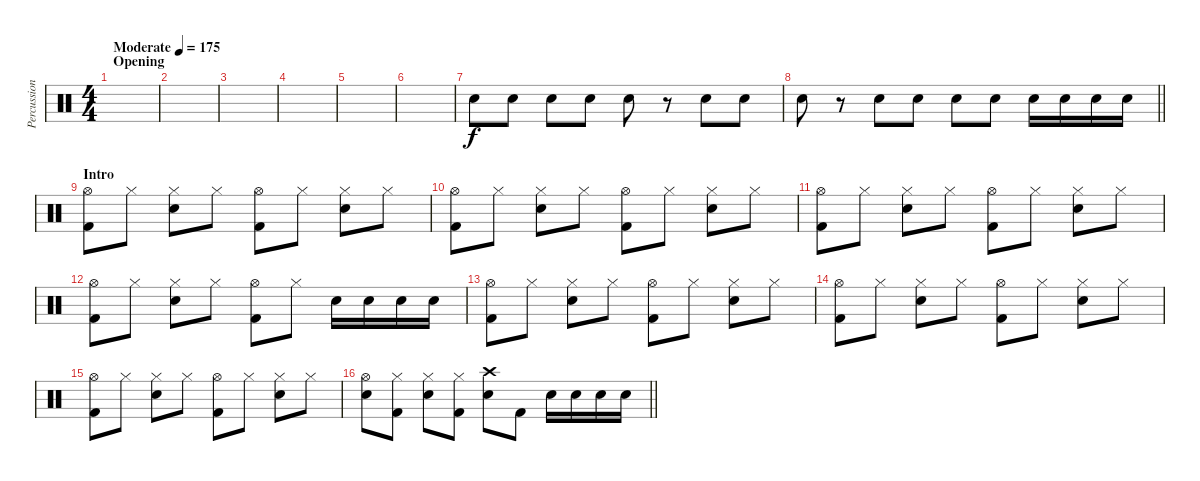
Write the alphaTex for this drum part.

\track ("Percussion" "Percussion") {instrument percussion}
\staff {score}
\articulation defaults
\ts (4 4)
\section ("" "Opening")
\tempo (175 "Moderate")
\clef neutral
\ks c
|
|
|
|
|
|
"Snare (hit) 2".8 "Snare (hit) 2".8 "Snare (hit) 2".8 "Snare (hit) 2".8 "Snare (hit) 2".8 r.8 "Snare (hit) 2".8 "Snare (hit) 2".8 |
\barLineRight lightlight "Snare (hit) 2".8
r.8 "Snare (hit) 2".8 "Snare (hit) 2".8 "Snare (hit) 2".8 "Snare (hit) 2".8 "Snare (hit) 2".16 "Snare (hit) 2".16 "Snare (hit) 2".16 "Snare (hit) 2".16 |
\section ("" "Intro")
("Hi-Hat (open)" "Kick (hit) 2").8 "Hi-Hat (closed)".8 ("Hi-Hat (closed)" "Snare (hit) 2").8 "Hi-Hat (closed)".8 ("Hi-Hat (open)" "Kick (hit) 2").8 "Hi-Hat (closed)".8 ("Hi-Hat (closed)" "Snare (hit) 2").8 "Hi-Hat (closed)".8 |
("Hi-Hat (open)" "Kick (hit) 2").8 "Hi-Hat (closed)".8 ("Hi-Hat (closed)" "Snare (hit) 2").8 "Hi-Hat (closed)".8 ("Hi-Hat (open)" "Kick (hit) 2").8 "Hi-Hat (closed)".8 ("Hi-Hat (closed)" "Snare (hit) 2").8 "Hi-Hat (closed)".8 |
("Hi-Hat (open)" "Kick (hit) 2").8 "Hi-Hat (closed)".8 ("Hi-Hat (closed)" "Snare (hit) 2").8 "Hi-Hat (closed)".8 ("Hi-Hat (open)" "Kick (hit) 2").8 "Hi-Hat (closed)".8 ("Hi-Hat (closed)" "Snare (hit) 2").8 "Hi-Hat (closed)".8 |
("Hi-Hat (open)" "Kick (hit) 2").8 "Hi-Hat (closed)".8 ("Hi-Hat (closed)" "Snare (hit) 2").8 "Hi-Hat (closed)".8 ("Hi-Hat (open)" "Kick (hit) 2").8 "Hi-Hat (closed)".8 "Snare (hit) 2".16 "Snare (hit) 2".16 "Snare (hit) 2".16 "Snare (hit) 2".16 |
("Hi-Hat (open)" "Kick (hit) 2").8 "Hi-Hat (closed)".8 ("Hi-Hat (closed)" "Snare (hit) 2").8 "Hi-Hat (closed)".8 ("Hi-Hat (open)" "Kick (hit) 2").8 "Hi-Hat (closed)".8 ("Hi-Hat (closed)" "Snare (hit) 2").8 "Hi-Hat (closed)".8 |
("Hi-Hat (open)" "Kick (hit) 2").8 "Hi-Hat (closed)".8 ("Hi-Hat (closed)" "Snare (hit) 2").8 "Hi-Hat (closed)".8 ("Hi-Hat (open)" "Kick (hit) 2").8 "Hi-Hat (closed)".8 ("Hi-Hat (closed)" "Snare (hit) 2").8 "Hi-Hat (closed)".8 |
("Hi-Hat (open)" "Kick (hit) 2").8 "Hi-Hat (closed)".8 ("Hi-Hat (closed)" "Snare (hit) 2").8 "Hi-Hat (closed)".8 ("Hi-Hat (open)" "Kick (hit) 2").8 "Hi-Hat (closed)".8 ("Hi-Hat (closed)" "Snare (hit) 2").8 "Hi-Hat (closed)".8 |
\barLineRight lightlight
("Hi-Hat (open)" "Snare (hit) 2").8 ("Hi-Hat (closed)" "Kick (hit) 2").8 ("Hi-Hat (closed)" "Snare (hit) 2").8 ("Hi-Hat (closed)" "Kick (hit) 2").8 ("Crash high (hit)" "Snare (hit) 2").8 "Kick (hit) 2".8 "Snare (hit) 2".16 "Snare (hit) 2".16 "Snare (hit) 2".16 "Snare (hit) 2".16
